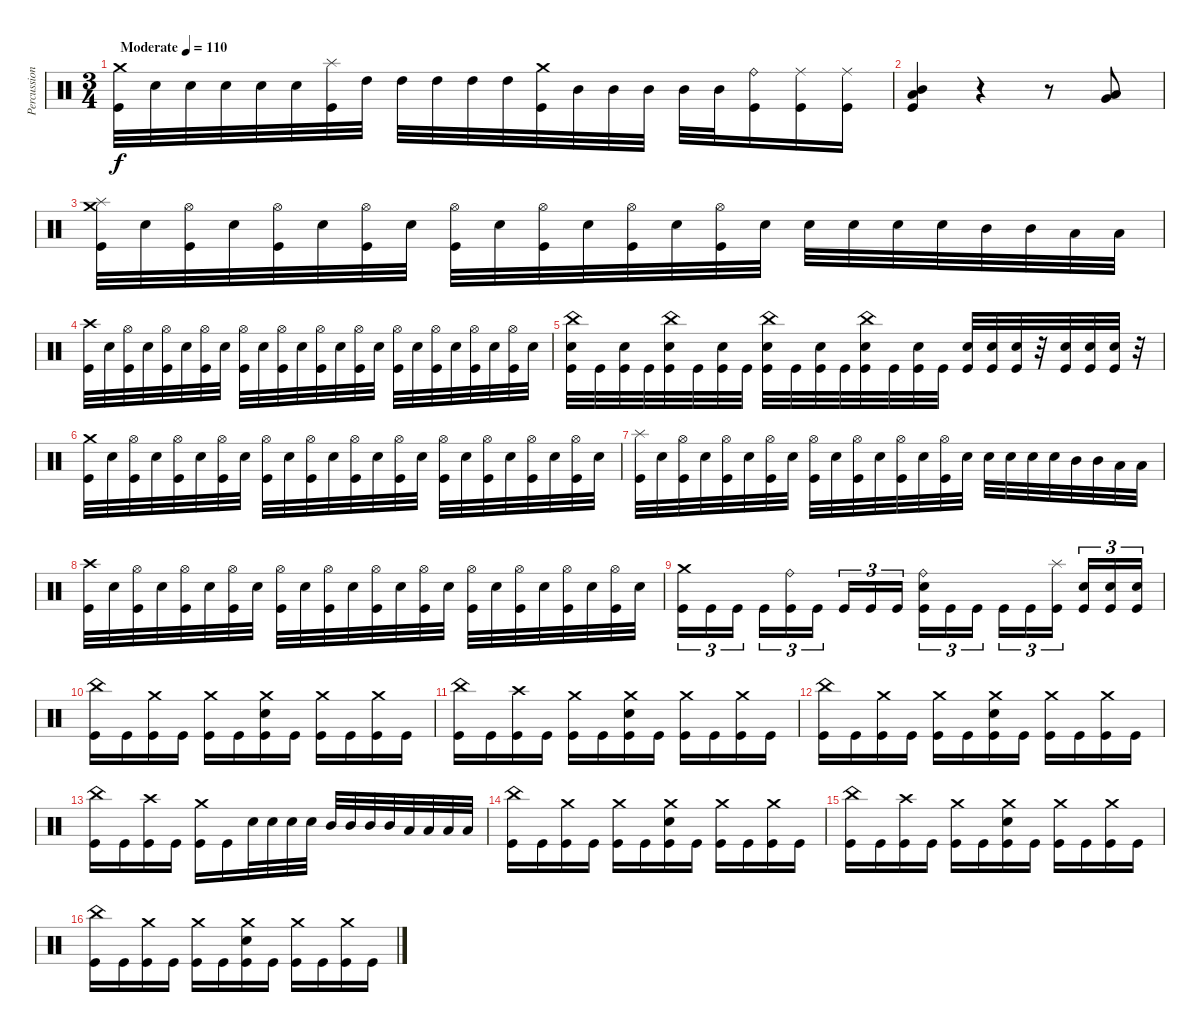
\track ("Percussion" "Percussion") {instrument percussion}
\staff {score}
\articulation defaults
\ts (3 4)
\tempo (110 "Moderate")
\clef neutral
\ks c
("Crash medium (hit)" "Kick (hit)").32{dy f} "Electric Snare (hit)".32 "Electric Snare (hit)".32 "Electric Snare (hit)".32 "Electric Snare (hit)".32 "Electric Snare (hit)".32 ("Splash (hit)" "Kick (hit)").32 "High Tom (hit)".32 "High Tom (hit)".32 "High Tom (hit)".32 "High Tom (hit)".32 "High Tom (hit)".32 ("Crash medium (hit)" "Kick (hit)").32 "Mid Tom (hit)".32 "Mid Tom (hit)".32 "Mid Tom (hit)".32 "Mid Tom (hit)".32 "Mid Tom (hit)".32 ("Ride (bell)" "Kick (hit)").16 ("Ride (middle)" "Kick (hit)").16 ("Ride (middle)" "Kick (hit)").16 |
("Low Tom (hit)" "Mid Tom (hit)" "Kick (hit)").4 r.4 r.8 ("Very Low Tom (hit)" "Low Tom (hit)").8 |
("Crash medium (hit)" "Splash (hit)" "Kick (hit)").32 "Electric Snare (hit)".32 ("Hi-Hat (open)" "Kick (hit)").32 "Electric Snare (hit)".32 ("Hi-Hat (open)" "Kick (hit)").32 "Electric Snare (hit)".32 ("Hi-Hat (open)" "Kick (hit)").32 "Electric Snare (hit)".32 ("Hi-Hat (open)" "Kick (hit)").32 "Electric Snare (hit)".32 ("Hi-Hat (open)" "Kick (hit)").32 "Electric Snare (hit)".32 ("Hi-Hat (open)" "Kick (hit)").32 "Electric Snare (hit)".32 ("Hi-Hat (open)" "Kick (hit)").32 "Electric Snare (hit)".32 "Electric Snare (hit)".32 "Electric Snare (hit)".32 "Electric Snare (hit)".32 "Electric Snare (hit)".32 "Mid Tom (hit)".32 "Mid Tom (hit)".32 "Low Tom (hit)".32 "Low Tom (hit)".32 |
("Crash high (hit)" "Kick (hit)").32 "Electric Snare (hit)".32 ("Hi-Hat (open)" "Kick (hit)").32 "Electric Snare (hit)".32 ("Hi-Hat (open)" "Kick (hit)").32 "Electric Snare (hit)".32 ("Hi-Hat (open)" "Kick (hit)").32 "Electric Snare (hit)".32 ("Hi-Hat (open)" "Kick (hit)").32 "Electric Snare (hit)".32 ("Hi-Hat (open)" "Kick (hit)").32 "Electric Snare (hit)".32 ("Hi-Hat (open)" "Kick (hit)").32 "Electric Snare (hit)".32 ("Hi-Hat (open)" "Kick (hit)").32 "Electric Snare (hit)".32 ("Hi-Hat (open)" "Kick (hit)").32 "Electric Snare (hit)".32 ("Hi-Hat (open)" "Kick (hit)").32 "Electric Snare (hit)".32 ("Hi-Hat (open)" "Kick (hit)").32 "Electric Snare (hit)".32 ("Hi-Hat (open)" "Kick (hit)").32 "Electric Snare (hit)".32 |
("China (hit)" "Electric Snare (hit)" "Kick (hit)").32 "Kick (hit)".32 ("Electric Snare (hit)" "Kick (hit)").32 "Kick (hit)".32 ("China (hit)" "Electric Snare (hit)" "Kick (hit)").32 "Kick (hit)".32 ("Electric Snare (hit)" "Kick (hit)").32 "Kick (hit)".32 ("China (hit)" "Electric Snare (hit)" "Kick (hit)").32 "Kick (hit)".32 ("Electric Snare (hit)" "Kick (hit)").32 "Kick (hit)".32 ("China (hit)" "Electric Snare (hit)" "Kick (hit)").32 "Kick (hit)".32 ("Electric Snare (hit)" "Kick (hit)").32 "Kick (hit)".32 ("Electric Snare (hit)" "Kick (hit)").32 ("Electric Snare (hit)" "Kick (hit)").32 ("Electric Snare (hit)" "Kick (hit)").32 r.32 ("Electric Snare (hit)" "Kick (hit)").32 ("Electric Snare (hit)" "Kick (hit)").32 ("Electric Snare (hit)" "Kick (hit)").32 r.32 |
("Crash medium (hit)" "Kick (hit)").32 "Electric Snare (hit)".32 ("Hi-Hat (open)" "Kick (hit)").32 "Electric Snare (hit)".32 ("Hi-Hat (open)" "Kick (hit)").32 "Electric Snare (hit)".32 ("Hi-Hat (open)" "Kick (hit)").32 "Electric Snare (hit)".32 ("Hi-Hat (open)" "Kick (hit)").32 "Electric Snare (hit)".32 ("Hi-Hat (open)" "Kick (hit)").32 "Electric Snare (hit)".32 ("Hi-Hat (open)" "Kick (hit)").32 "Electric Snare (hit)".32 ("Hi-Hat (open)" "Kick (hit)").32 "Electric Snare (hit)".32 ("Hi-Hat (open)" "Kick (hit)").32 "Electric Snare (hit)".32 ("Hi-Hat (open)" "Kick (hit)").32 "Electric Snare (hit)".32 ("Hi-Hat (open)" "Kick (hit)").32 "Electric Snare (hit)".32 ("Hi-Hat (open)" "Kick (hit)").32 "Electric Snare (hit)".32 |
("Splash (hit)" "Kick (hit)").32 "Electric Snare (hit)".32 ("Hi-Hat (open)" "Kick (hit)").32 "Electric Snare (hit)".32 ("Hi-Hat (open)" "Kick (hit)").32 "Electric Snare (hit)".32 ("Hi-Hat (open)" "Kick (hit)").32 "Electric Snare (hit)".32 ("Hi-Hat (open)" "Kick (hit)").32 "Electric Snare (hit)".32 ("Hi-Hat (open)" "Kick (hit)").32 "Electric Snare (hit)".32 ("Hi-Hat (open)" "Kick (hit)").32 "Electric Snare (hit)".32 ("Hi-Hat (open)" "Kick (hit)").32 "Electric Snare (hit)".32 "Electric Snare (hit)".32 "Electric Snare (hit)".32 "Electric Snare (hit)".32 "Electric Snare (hit)".32 "Mid Tom (hit)".32 "Mid Tom (hit)".32 "Low Tom (hit)".32 "Low Tom (hit)".32 |
("Crash high (hit)" "Kick (hit)").32 "Electric Snare (hit)".32 ("Hi-Hat (open)" "Kick (hit)").32 "Electric Snare (hit)".32 ("Hi-Hat (open)" "Kick (hit)").32 "Electric Snare (hit)".32 ("Hi-Hat (open)" "Kick (hit)").32 "Electric Snare (hit)".32 ("Hi-Hat (open)" "Kick (hit)").32 "Electric Snare (hit)".32 ("Hi-Hat (open)" "Kick (hit)").32 "Electric Snare (hit)".32 ("Hi-Hat (open)" "Kick (hit)").32 "Electric Snare (hit)".32 ("Hi-Hat (open)" "Kick (hit)").32 "Electric Snare (hit)".32 ("Hi-Hat (open)" "Kick (hit)").32 "Electric Snare (hit)".32 ("Hi-Hat (open)" "Kick (hit)").32 "Electric Snare (hit)".32 ("Hi-Hat (open)" "Kick (hit)").32 "Electric Snare (hit)".32 ("Hi-Hat (open)" "Kick (hit)").32 "Electric Snare (hit)".32 |
("Crash medium (hit)" "Kick (hit)").16{tu (3 2)} "Kick (hit)".16{tu (3 2)} "Kick (hit)".16{tu (3 2) beam splitsecondary} "Kick (hit)".16{tu (3 2)} ("Ride (bell)" "Kick (hit)").16{tu (3 2)} "Kick (hit)".16{tu (3 2)} "Kick (hit)".16{tu (3 2)} "Kick (hit)".16{tu (3 2)} "Kick (hit)".16{tu (3 2) beam splitsecondary} ("Ride (bell)" "Electric Snare (hit)" "Kick (hit)").16{tu (3 2)} "Kick (hit)".16{tu (3 2)} "Kick (hit)".16{tu (3 2)} "Kick (hit)".16{tu (3 2)} "Kick (hit)".16{tu (3 2)} ("Splash (hit)" "Kick (hit)").16{tu (3 2) beam splitsecondary} ("Electric Snare (hit)" "Kick (hit)").16{tu (3 2)} ("Electric Snare (hit)" "Kick (hit)").16{tu (3 2)} ("Electric Snare (hit)" "Kick (hit)").16{tu (3 2)} |
("China (hit)" "Kick (hit)").16 "Kick (hit)".16 ("Crash medium (hit)" "Kick (hit)").16 "Kick (hit)".16 ("Crash medium (hit)" "Kick (hit)").16 "Kick (hit)".16 ("Crash medium (hit)" "Electric Snare (hit)" "Kick (hit)").16 "Kick (hit)".16 ("Crash medium (hit)" "Kick (hit)").16 "Kick (hit)".16 ("Crash medium (hit)" "Kick (hit)").16 "Kick (hit)".16 |
("China (hit)" "Kick (hit)").16 "Kick (hit)".16 ("Crash high (hit)" "Kick (hit)").16 "Kick (hit)".16 ("Crash medium (hit)" "Kick (hit)").16 "Kick (hit)".16 ("Crash medium (hit)" "Electric Snare (hit)" "Kick (hit)").16 "Kick (hit)".16 ("Crash medium (hit)" "Kick (hit)").16 "Kick (hit)".16 ("Crash medium (hit)" "Kick (hit)").16 "Kick (hit)".16 |
("China (hit)" "Kick (hit)").16 "Kick (hit)".16 ("Crash medium (hit)" "Kick (hit)").16 "Kick (hit)".16 ("Crash medium (hit)" "Kick (hit)").16 "Kick (hit)".16 ("Crash medium (hit)" "Electric Snare (hit)" "Kick (hit)").16 "Kick (hit)".16 ("Crash medium (hit)" "Kick (hit)").16 "Kick (hit)".16 ("Crash medium (hit)" "Kick (hit)").16 "Kick (hit)".16 |
("China (hit)" "Kick (hit)").16 "Kick (hit)".16 ("Crash high (hit)" "Kick (hit)").16 "Kick (hit)".16 ("Crash medium (hit)" "Kick (hit)").16 "Kick (hit)".16 "Electric Snare (hit)".32 "Electric Snare (hit)".32 "Electric Snare (hit)".32 "Electric Snare (hit)".32 "Mid Tom (hit)".32 "Mid Tom (hit)".32 "Mid Tom (hit)".32 "Mid Tom (hit)".32 "Low Tom (hit)".32 "Low Tom (hit)".32 "Low Tom (hit)".32 "Low Tom (hit)".32 |
("China (hit)" "Kick (hit)").16 "Kick (hit)".16 ("Crash medium (hit)" "Kick (hit)").16 "Kick (hit)".16 ("Crash medium (hit)" "Kick (hit)").16 "Kick (hit)".16 ("Crash medium (hit)" "Electric Snare (hit)" "Kick (hit)").16 "Kick (hit)".16 ("Crash medium (hit)" "Kick (hit)").16 "Kick (hit)".16 ("Crash medium (hit)" "Kick (hit)").16 "Kick (hit)".16 |
("China (hit)" "Kick (hit)").16 "Kick (hit)".16 ("Crash high (hit)" "Kick (hit)").16 "Kick (hit)".16 ("Crash medium (hit)" "Kick (hit)").16 "Kick (hit)".16 ("Crash medium (hit)" "Electric Snare (hit)" "Kick (hit)").16 "Kick (hit)".16 ("Crash medium (hit)" "Kick (hit)").16 "Kick (hit)".16 ("Crash medium (hit)" "Kick (hit)").16 "Kick (hit)".16 |
("China (hit)" "Kick (hit)").16 "Kick (hit)".16 ("Crash medium (hit)" "Kick (hit)").16 "Kick (hit)".16 ("Crash medium (hit)" "Kick (hit)").16 "Kick (hit)".16 ("Crash medium (hit)" "Electric Snare (hit)" "Kick (hit)").16 "Kick (hit)".16 ("Crash medium (hit)" "Kick (hit)").16 "Kick (hit)".16 ("Crash medium (hit)" "Kick (hit)").16 "Kick (hit)".16
